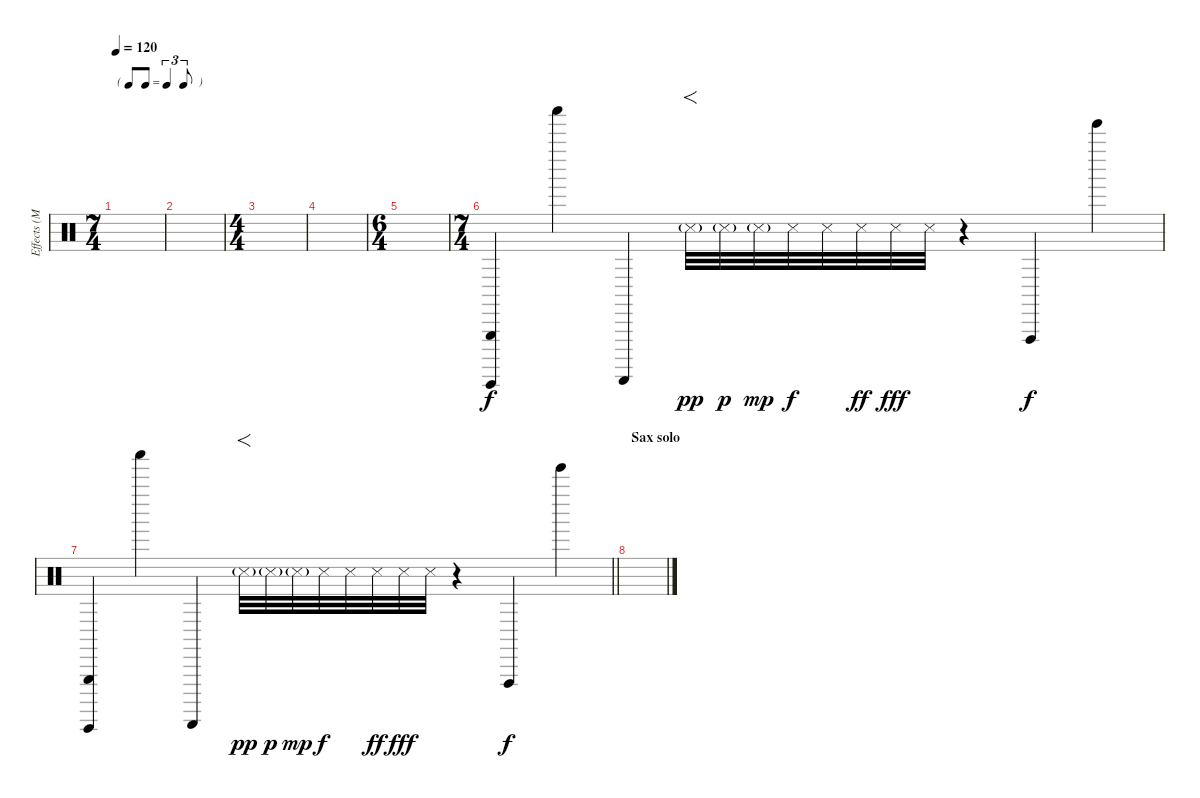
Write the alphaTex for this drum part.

\track ("Effects (Mason/Waters)" "Effects (M") {instrument percussion}
\staff {score}
\articulation defaults
\ts (7 4)
\tf triplet8th
\tempo 120
\clef neutral
\ks c
|
|
\ts (4 4)
|
|
\ts (6 4)
|
\ts (7 4)
("Triangle (hit)" "Guiro (hit)").4 "Shaker (hit)".4 "Guiro (scrap-return)".4 "Snare (side stick) 3"{g}.32{f dy pp} "Snare (side stick) 3"{g}.32{dy p} "Snare (side stick) 3"{g}.32{dy mp} "Snare (side stick) 3".32{dy f} "Snare (side stick) 3".32 "Snare (side stick) 3".32{dy ff} "Snare (side stick) 3".32{dy fff} "Snare (side stick) 3".32 r.4 "Vibraslap (hit)".4{dy f} "Tinkle Bell (hit)".4 |
\barLineRight lightlight
("Triangle (hit)" "Guiro (hit)").4 "Shaker (hit)".4 "Guiro (scrap-return)".4 "Snare (side stick) 3"{g}.32{f dy pp} "Snare (side stick) 3"{g}.32{dy p} "Snare (side stick) 3"{g}.32{dy mp} "Snare (side stick) 3".32{dy f} "Snare (side stick) 3".32 "Snare (side stick) 3".32{dy ff} "Snare (side stick) 3".32{dy fff} "Snare (side stick) 3".32 r.4 "Vibraslap (hit)".4{dy f} "Tinkle Bell (hit)".4 |
\section ("" "Sax solo")
